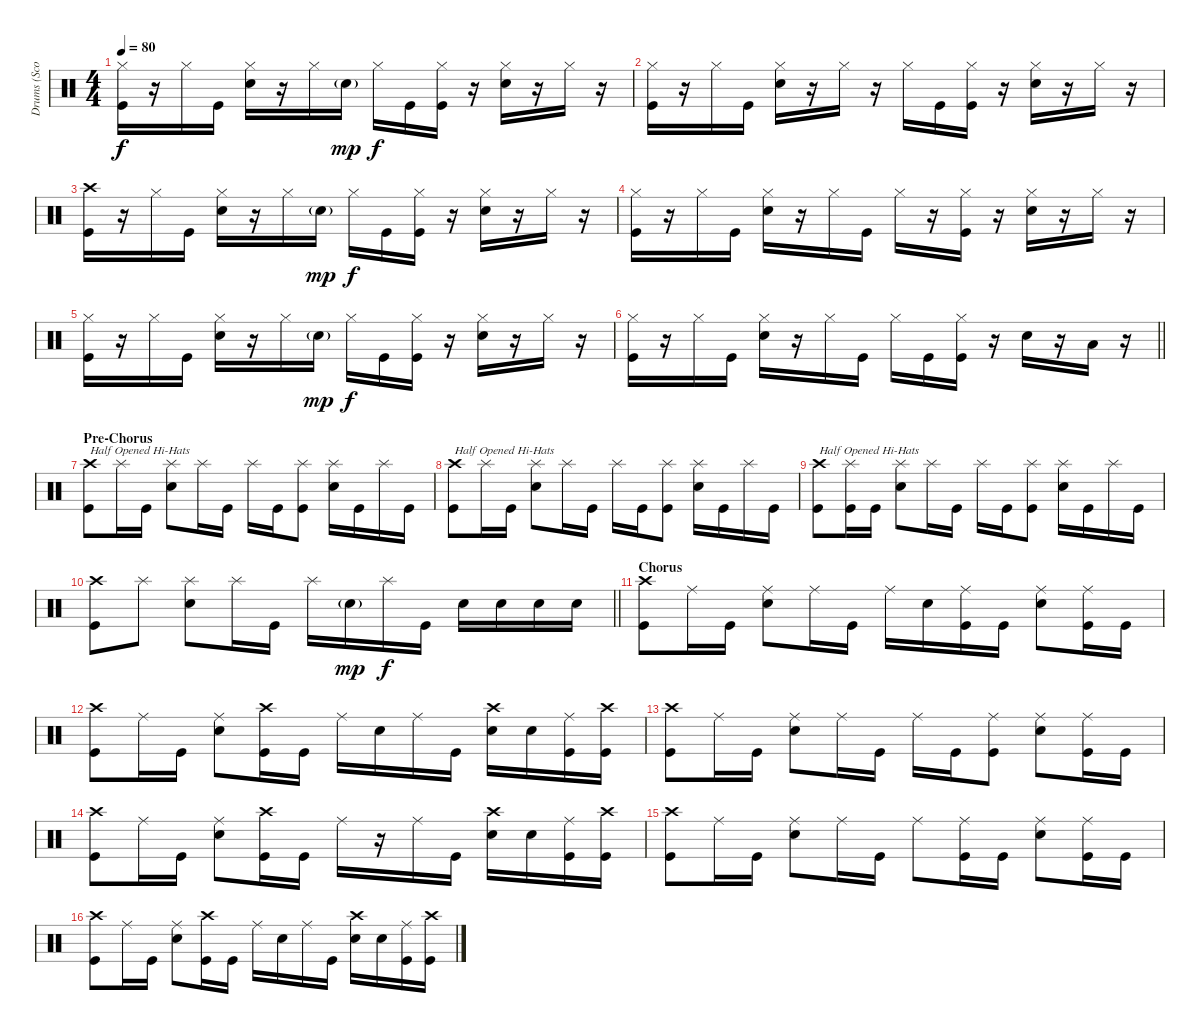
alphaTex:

\track ("Drums (Scott Phillips)" "Drums (Sco") {instrument percussion}
\staff {score}
\articulation defaults
\ts (4 4)
\tempo 80
\clef neutral
\ks c
("Hi-Hat (closed)" "Kick (hit)").16{dy f} r.16 "Hi-Hat (closed)".16 "Kick (hit)".16 ("Hi-Hat (closed)" "Snare (hit) 2").16 r.16 "Hi-Hat (closed)".16 "Snare (hit) 2"{g}.16{dy mp} "Hi-Hat (closed)".16{dy f} "Kick (hit)".16 ("Hi-Hat (closed)" "Kick (hit)").16 r.16 ("Hi-Hat (closed)" "Snare (hit) 2").16 r.16 "Hi-Hat (closed)".16 r.16 |
("Hi-Hat (closed)" "Kick (hit)").16 r.16 "Hi-Hat (closed)".16 "Kick (hit)".16 ("Hi-Hat (closed)" "Snare (hit) 2").16 r.16 "Hi-Hat (closed)".16 r.16 "Hi-Hat (closed)".16 "Kick (hit)".16 ("Hi-Hat (closed)" "Kick (hit)").16 r.16 ("Hi-Hat (closed)" "Snare (hit) 2").16 r.16 "Hi-Hat (closed)".16 r.16 |
("Crash high (hit)" "Kick (hit)").16 r.16 "Hi-Hat (closed)".16 "Kick (hit)".16 ("Hi-Hat (closed)" "Snare (hit) 2").16 r.16 "Hi-Hat (closed)".16 "Snare (hit) 2"{g}.16{dy mp} "Hi-Hat (closed)".16{dy f} "Kick (hit)".16 ("Hi-Hat (closed)" "Kick (hit)").16 r.16 ("Hi-Hat (closed)" "Snare (hit) 2").16 r.16 "Hi-Hat (closed)".16 r.16 |
("Hi-Hat (closed)" "Kick (hit)").16 r.16 "Hi-Hat (closed)".16 "Kick (hit)".16 ("Hi-Hat (closed)" "Snare (hit) 2").16 r.16 "Hi-Hat (closed)".16 "Kick (hit)".16 "Hi-Hat (closed)".16 r.16 ("Hi-Hat (closed)" "Kick (hit)").16 r.16 ("Hi-Hat (closed)" "Snare (hit) 2").16 r.16 "Hi-Hat (closed)".16 r.16 |
("Hi-Hat (closed)" "Kick (hit)").16 r.16 "Hi-Hat (closed)".16 "Kick (hit)".16 ("Hi-Hat (closed)" "Snare (hit) 2").16 r.16 "Hi-Hat (closed)".16 "Snare (hit) 2"{g}.16{dy mp} "Hi-Hat (closed)".16{dy f} "Kick (hit)".16 ("Hi-Hat (closed)" "Kick (hit)").16 r.16 ("Hi-Hat (closed)" "Snare (hit) 2").16 r.16 "Hi-Hat (closed)".16 r.16 |
\barLineRight lightlight
("Hi-Hat (closed)" "Kick (hit)").16 r.16 "Hi-Hat (closed)".16 "Kick (hit)".16 ("Hi-Hat (closed)" "Snare (hit) 2").16 r.16 "Hi-Hat (closed)".16 "Kick (hit)".16 "Hi-Hat (closed)".16 "Kick (hit)".16 ("Hi-Hat (closed)" "Kick (hit)").16 r.16 "Snare (hit) 2".16 r.16 "Low Tom (hit)".16 r.16 |
\section ("" "Pre-Chorus")
("Crash high (hit)" "Kick (hit)").8{txt "Half Opened Hi-Hats"} "Splash (hit)".16 "Kick (hit)".16 ("Splash (hit)" "Snare (hit) 2").8 "Splash (hit)".16 "Kick (hit)".16 "Splash (hit)".16 "Kick (hit)".16 ("Splash (hit)" "Kick (hit)").8 ("Splash (hit)" "Snare (hit) 2").16 "Kick (hit)".16 "Splash (hit)".16 "Kick (hit)".16 |
("Crash high (hit)" "Kick (hit)").8{txt "Half Opened Hi-Hats"} "Splash (hit)".16 "Kick (hit)".16 ("Splash (hit)" "Snare (hit) 2").8 "Splash (hit)".16 "Kick (hit)".16 "Splash (hit)".16 "Kick (hit)".16 ("Splash (hit)" "Kick (hit)").8 ("Splash (hit)" "Snare (hit) 2").16 "Kick (hit)".16 "Splash (hit)".16 "Kick (hit)".16 |
("Crash high (hit)" "Kick (hit)").8{txt "Half Opened Hi-Hats"} ("Splash (hit)" "Kick (hit)").16 "Kick (hit)".16 ("Splash (hit)" "Snare (hit) 2").8 "Splash (hit)".16 "Kick (hit)".16 "Splash (hit)".16 "Kick (hit)".16 ("Splash (hit)" "Kick (hit)").8 ("Splash (hit)" "Snare (hit) 2").16 "Kick (hit)".16 "Splash (hit)".16 "Kick (hit)".16 |
\barLineRight lightlight
("Crash high (hit)" "Kick (hit)").8 "Splash (hit)".8 ("Splash (hit)" "Snare (hit) 2").8 "Splash (hit)".16 "Kick (hit)".16 "Splash (hit)".16 "Snare (hit) 2"{g}.16{dy mp} "Splash (hit)".16{dy f} "Kick (hit)".16 "Snare (hit) 2".16 "Snare (hit) 2".16 "Snare (hit) 2".16 "Snare (hit) 2".16 |
\section ("" "Chorus")
("Crash high (hit)" "Kick (hit)").8 "Ride (middle)".16 "Kick (hit)".16 ("Ride (middle)" "Snare (hit) 2").8 "Ride (middle)".16 "Kick (hit)".16 "Ride (middle)".16 "Snare (hit) 2".16 ("Ride (middle)" "Kick (hit)").16 "Kick (hit)".16 ("Ride (middle)" "Snare (hit) 2").8 ("Ride (middle)" "Kick (hit)").16 "Kick (hit)".16 |
("Crash high (hit)" "Kick (hit)").8 "Ride (middle)".16 "Kick (hit)".16 ("Ride (middle)" "Snare (hit) 2").8 ("Crash high (hit)" "Kick (hit)").16 "Kick (hit)".16 "Ride (middle)".16 "Snare (hit) 2".16 "Ride (middle)".16 "Kick (hit)".16 ("Crash high (hit)" "Snare (hit) 2").16 "Snare (hit) 2".16 ("Ride (middle)" "Kick (hit)").16 ("Crash high (hit)" "Kick (hit)").16 |
("Crash high (hit)" "Kick (hit)").8 "Ride (middle)".16 "Kick (hit)".16 ("Ride (middle)" "Snare (hit) 2").8 "Ride (middle)".16 "Kick (hit)".16 "Ride (middle)".16 "Kick (hit)".16 ("Ride (middle)" "Kick (hit)").8 ("Ride (middle)" "Snare (hit) 2").8 ("Ride (middle)" "Kick (hit)").16 "Kick (hit)".16 |
("Crash high (hit)" "Kick (hit)").8 "Ride (middle)".16 "Kick (hit)".16 ("Ride (middle)" "Snare (hit) 2").8 ("Crash high (hit)" "Kick (hit)").16 "Kick (hit)".16 "Ride (middle)".16 r.16 "Ride (middle)".16 "Kick (hit)".16 ("Crash high (hit)" "Snare (hit) 2").16 "Snare (hit) 2".16 ("Ride (middle)" "Kick (hit)").16 ("Crash high (hit)" "Kick (hit)").16 |
("Crash high (hit)" "Kick (hit)").8 "Ride (middle)".16 "Kick (hit)".16 ("Ride (middle)" "Snare (hit) 2").8 "Ride (middle)".16 "Kick (hit)".16 "Ride (middle)".8 ("Ride (middle)" "Kick (hit)").16 "Kick (hit)".16 ("Ride (middle)" "Snare (hit) 2").8 ("Ride (middle)" "Kick (hit)").16 "Kick (hit)".16 |
("Crash high (hit)" "Kick (hit)").8 "Ride (middle)".16 "Kick (hit)".16 ("Ride (middle)" "Snare (hit) 2").8 ("Crash high (hit)" "Kick (hit)").16 "Kick (hit)".16 "Ride (middle)".16 "Snare (hit) 2".16 "Ride (middle)".16 "Kick (hit)".16 ("Crash high (hit)" "Snare (hit) 2").16 "Snare (hit) 2".16 ("Ride (middle)" "Kick (hit)").16 ("Crash high (hit)" "Kick (hit)").16
